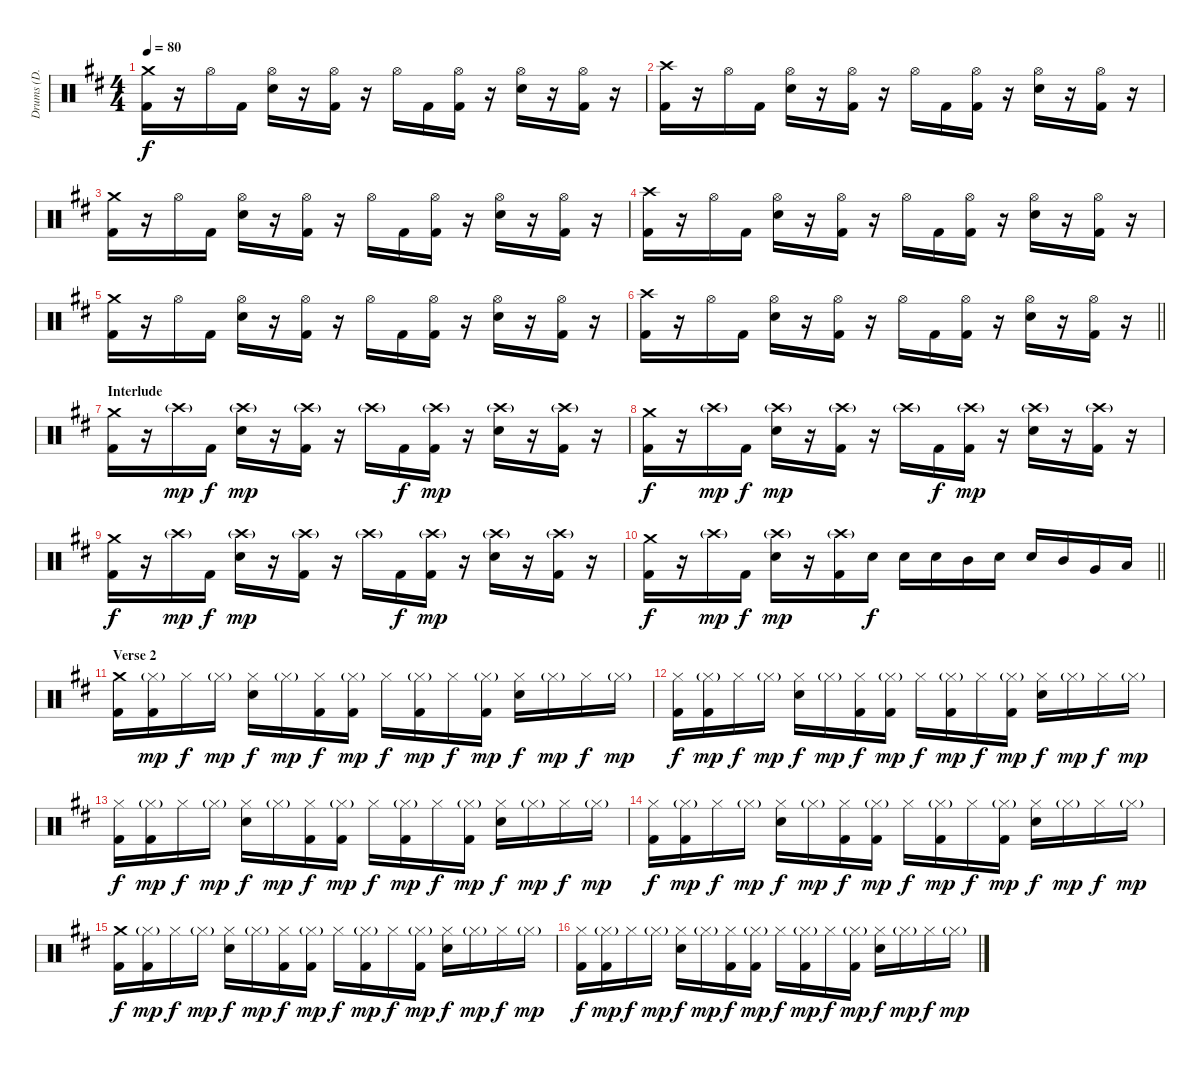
\track ("Drums (D. Adair)" "Drums (D. ") {instrument percussion}
\staff {score}
\articulation defaults
\ts (4 4)
\tempo 80
\clef neutral
\ks d
("Crash medium (hit)" "Kick (hit) 2").16{dy f} r.16 "Hi-Hat (open)".16 "Kick (hit) 2".16 ("Hi-Hat (open)" "Snare (hit) 2").16 r.16 ("Hi-Hat (open)" "Kick (hit) 2").16 r.16 "Hi-Hat (open)".16 "Kick (hit) 2".16 ("Hi-Hat (open)" "Kick (hit) 2").16 r.16 ("Hi-Hat (open)" "Snare (hit) 2").16 r.16 ("Hi-Hat (open)" "Kick (hit) 2").16 r.16 |
("Crash high (hit)" "Kick (hit) 2").16 r.16 "Hi-Hat (open)".16 "Kick (hit) 2".16 ("Hi-Hat (open)" "Snare (hit) 2").16 r.16 ("Hi-Hat (open)" "Kick (hit) 2").16 r.16 "Hi-Hat (open)".16 "Kick (hit) 2".16 ("Hi-Hat (open)" "Kick (hit) 2").16 r.16 ("Hi-Hat (open)" "Snare (hit) 2").16 r.16 ("Hi-Hat (open)" "Kick (hit) 2").16 r.16 |
("Crash medium (hit)" "Kick (hit) 2").16 r.16 "Hi-Hat (open)".16 "Kick (hit) 2".16 ("Hi-Hat (open)" "Snare (hit) 2").16 r.16 ("Hi-Hat (open)" "Kick (hit) 2").16 r.16 "Hi-Hat (open)".16 "Kick (hit) 2".16 ("Hi-Hat (open)" "Kick (hit) 2").16 r.16 ("Hi-Hat (open)" "Snare (hit) 2").16 r.16 ("Hi-Hat (open)" "Kick (hit) 2").16 r.16 |
("Crash high (hit)" "Kick (hit) 2").16 r.16 "Hi-Hat (open)".16 "Kick (hit) 2".16 ("Hi-Hat (open)" "Snare (hit) 2").16 r.16 ("Hi-Hat (open)" "Kick (hit) 2").16 r.16 "Hi-Hat (open)".16 "Kick (hit) 2".16 ("Hi-Hat (open)" "Kick (hit) 2").16 r.16 ("Hi-Hat (open)" "Snare (hit) 2").16 r.16 ("Hi-Hat (open)" "Kick (hit) 2").16 r.16 |
("Crash medium (hit)" "Kick (hit) 2").16 r.16 "Hi-Hat (open)".16 "Kick (hit) 2".16 ("Hi-Hat (open)" "Snare (hit) 2").16 r.16 ("Hi-Hat (open)" "Kick (hit) 2").16 r.16 "Hi-Hat (open)".16 "Kick (hit) 2".16 ("Hi-Hat (open)" "Kick (hit) 2").16 r.16 ("Hi-Hat (open)" "Snare (hit) 2").16 r.16 ("Hi-Hat (open)" "Kick (hit) 2").16 r.16 |
\barLineRight lightlight
("Crash high (hit)" "Kick (hit) 2").16 r.16 "Hi-Hat (open)".16 "Kick (hit) 2".16 ("Hi-Hat (open)" "Snare (hit) 2").16 r.16 ("Hi-Hat (open)" "Kick (hit) 2").16 r.16 "Hi-Hat (open)".16 "Kick (hit) 2".16 ("Hi-Hat (open)" "Kick (hit) 2").16 r.16 ("Hi-Hat (open)" "Snare (hit) 2").16 r.16 ("Hi-Hat (open)" "Kick (hit) 2").16 r.16 |
\section ("" "Interlude")
("Crash medium (hit)" "Kick (hit) 2").16 r.16 "Crash high (hit)"{g}.16{dy mp} "Kick (hit) 2".16{dy f} ("Crash high (hit)"{g} "Snare (hit) 2").16{dy mp} r.16 ("Crash high (hit)"{g} "Kick (hit) 2").16 r.16 "Crash high (hit)"{g}.16 "Kick (hit) 2".16{dy f} ("Crash high (hit)"{g} "Kick (hit) 2").16{dy mp} r.16 ("Crash high (hit)"{g} "Snare (hit) 2").16 r.16 ("Crash high (hit)"{g} "Kick (hit) 2").16 r.16 |
("Crash medium (hit)" "Kick (hit) 2").16{dy f} r.16 "Crash high (hit)"{g}.16{dy mp} "Kick (hit) 2".16{dy f} ("Crash high (hit)"{g} "Snare (hit) 2").16{dy mp} r.16 ("Crash high (hit)"{g} "Kick (hit) 2").16 r.16 "Crash high (hit)"{g}.16 "Kick (hit) 2".16{dy f} ("Crash high (hit)"{g} "Kick (hit) 2").16{dy mp} r.16 ("Crash high (hit)"{g} "Snare (hit) 2").16 r.16 ("Crash high (hit)"{g} "Kick (hit) 2").16 r.16 |
("Crash medium (hit)" "Kick (hit) 2").16{dy f} r.16 "Crash high (hit)"{g}.16{dy mp} "Kick (hit) 2".16{dy f} ("Crash high (hit)"{g} "Snare (hit) 2").16{dy mp} r.16 ("Crash high (hit)"{g} "Kick (hit) 2").16 r.16 "Crash high (hit)"{g}.16 "Kick (hit) 2".16{dy f} ("Crash high (hit)"{g} "Kick (hit) 2").16{dy mp} r.16 ("Crash high (hit)"{g} "Snare (hit) 2").16 r.16 ("Crash high (hit)"{g} "Kick (hit) 2").16 r.16 |
\barLineRight lightlight
("Crash medium (hit)" "Kick (hit) 2").16{dy f} r.16 "Crash high (hit)"{g}.16{dy mp} "Kick (hit) 2".16{dy f} ("Crash high (hit)"{g} "Snare (hit) 2").16{dy mp} r.16 ("Crash high (hit)"{g} "Kick (hit) 2").16 "Snare (hit) 2".16{dy f} "Snare (hit) 2".16 "Snare (hit) 2".16 "Mid Tom (hit)".16 "Snare (hit) 2".16 "Snare (hit) 2".16 "Mid Tom (hit)".16 "Very Low Tom (hit)".16 "Low Floor Tom (hit)".16 |
\section ("" "Verse 2")
("Crash medium (hit)" "Kick (hit) 2").16 ("Hi-Hat (closed)"{g} "Kick (hit) 2").16{dy mp} "Hi-Hat (closed)".16{dy f} "Hi-Hat (closed)"{g}.16{dy mp} ("Hi-Hat (closed)" "Snare (hit) 2").16{dy f} "Hi-Hat (closed)"{g}.16{dy mp} ("Hi-Hat (closed)" "Kick (hit) 2").16{dy f} ("Hi-Hat (closed)"{g} "Kick (hit) 2").16{dy mp} "Hi-Hat (closed)".16{dy f} ("Hi-Hat (closed)"{g} "Kick (hit) 2").16{dy mp} "Hi-Hat (closed)".16{dy f} ("Hi-Hat (closed)"{g} "Kick (hit) 2").16{dy mp} ("Hi-Hat (closed)" "Snare (hit) 2").16{dy f} "Hi-Hat (closed)"{g}.16{dy mp} "Hi-Hat (closed)".16{dy f} "Hi-Hat (closed)"{g}.16{dy mp} |
("Hi-Hat (closed)" "Kick (hit) 2").16{dy f} ("Hi-Hat (closed)"{g} "Kick (hit) 2").16{dy mp} "Hi-Hat (closed)".16{dy f} "Hi-Hat (closed)"{g}.16{dy mp} ("Hi-Hat (closed)" "Snare (hit) 2").16{dy f} "Hi-Hat (closed)"{g}.16{dy mp} ("Hi-Hat (closed)" "Kick (hit) 2").16{dy f} ("Hi-Hat (closed)"{g} "Kick (hit) 2").16{dy mp} "Hi-Hat (closed)".16{dy f} ("Hi-Hat (closed)"{g} "Kick (hit) 2").16{dy mp} "Hi-Hat (closed)".16{dy f} ("Hi-Hat (closed)"{g} "Kick (hit) 2").16{dy mp} ("Hi-Hat (closed)" "Snare (hit) 2").16{dy f} "Hi-Hat (closed)"{g}.16{dy mp} "Hi-Hat (closed)".16{dy f} "Hi-Hat (closed)"{g}.16{dy mp} |
("Hi-Hat (closed)" "Kick (hit) 2").16{dy f} ("Hi-Hat (closed)"{g} "Kick (hit) 2").16{dy mp} "Hi-Hat (closed)".16{dy f} "Hi-Hat (closed)"{g}.16{dy mp} ("Hi-Hat (closed)" "Snare (hit) 2").16{dy f} "Hi-Hat (closed)"{g}.16{dy mp} ("Hi-Hat (closed)" "Kick (hit) 2").16{dy f} ("Hi-Hat (closed)"{g} "Kick (hit) 2").16{dy mp} "Hi-Hat (closed)".16{dy f} ("Hi-Hat (closed)"{g} "Kick (hit) 2").16{dy mp} "Hi-Hat (closed)".16{dy f} ("Hi-Hat (closed)"{g} "Kick (hit) 2").16{dy mp} ("Hi-Hat (closed)" "Snare (hit) 2").16{dy f} "Hi-Hat (closed)"{g}.16{dy mp} "Hi-Hat (closed)".16{dy f} "Hi-Hat (closed)"{g}.16{dy mp} |
("Hi-Hat (closed)" "Kick (hit) 2").16{dy f} ("Hi-Hat (closed)"{g} "Kick (hit) 2").16{dy mp} "Hi-Hat (closed)".16{dy f} "Hi-Hat (closed)"{g}.16{dy mp} ("Hi-Hat (closed)" "Snare (hit) 2").16{dy f} "Hi-Hat (closed)"{g}.16{dy mp} ("Hi-Hat (closed)" "Kick (hit) 2").16{dy f} ("Hi-Hat (closed)"{g} "Kick (hit) 2").16{dy mp} "Hi-Hat (closed)".16{dy f} ("Hi-Hat (closed)"{g} "Kick (hit) 2").16{dy mp} "Hi-Hat (closed)".16{dy f} ("Hi-Hat (closed)"{g} "Kick (hit) 2").16{dy mp} ("Hi-Hat (closed)" "Snare (hit) 2").16{dy f} "Hi-Hat (closed)"{g}.16{dy mp} "Hi-Hat (closed)".16{dy f} "Hi-Hat (closed)"{g}.16{dy mp} |
("Crash medium (hit)" "Kick (hit) 2").16{dy f} ("Hi-Hat (closed)"{g} "Kick (hit) 2").16{dy mp} "Hi-Hat (closed)".16{dy f} "Hi-Hat (closed)"{g}.16{dy mp} ("Hi-Hat (closed)" "Snare (hit) 2").16{dy f} "Hi-Hat (closed)"{g}.16{dy mp} ("Hi-Hat (closed)" "Kick (hit) 2").16{dy f} ("Hi-Hat (closed)"{g} "Kick (hit) 2").16{dy mp} "Hi-Hat (closed)".16{dy f} ("Hi-Hat (closed)"{g} "Kick (hit) 2").16{dy mp} "Hi-Hat (closed)".16{dy f} ("Hi-Hat (closed)"{g} "Kick (hit) 2").16{dy mp} ("Hi-Hat (closed)" "Snare (hit) 2").16{dy f} "Hi-Hat (closed)"{g}.16{dy mp} "Hi-Hat (closed)".16{dy f} "Hi-Hat (closed)"{g}.16{dy mp} |
("Hi-Hat (closed)" "Kick (hit) 2").16{dy f} ("Hi-Hat (closed)"{g} "Kick (hit) 2").16{dy mp} "Hi-Hat (closed)".16{dy f} "Hi-Hat (closed)"{g}.16{dy mp} ("Hi-Hat (closed)" "Snare (hit) 2").16{dy f} "Hi-Hat (closed)"{g}.16{dy mp} ("Hi-Hat (closed)" "Kick (hit) 2").16{dy f} ("Hi-Hat (closed)"{g} "Kick (hit) 2").16{dy mp} "Hi-Hat (closed)".16{dy f} ("Hi-Hat (closed)"{g} "Kick (hit) 2").16{dy mp} "Hi-Hat (closed)".16{dy f} ("Hi-Hat (closed)"{g} "Kick (hit) 2").16{dy mp} ("Hi-Hat (closed)" "Snare (hit) 2").16{dy f} "Hi-Hat (closed)"{g}.16{dy mp} "Hi-Hat (closed)".16{dy f} "Hi-Hat (closed)"{g}.16{dy mp}
